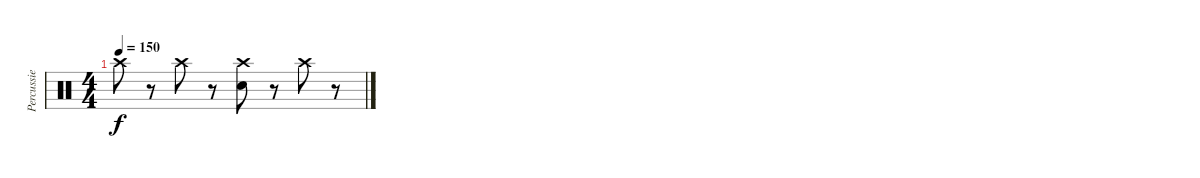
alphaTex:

\track ("Percussie" "Percussie") {instrument percussion}
\staff {score}
\articulation defaults
\ts (4 4)
\tempo 150
\clef neutral
\ks c "Crash high (hit)".8{dy f}
r.8 "Crash high (hit)".8 r.8 ("Crash high (hit)" "Electric Snare (hit)").8 r.8 "Crash high (hit)".8 r.8
